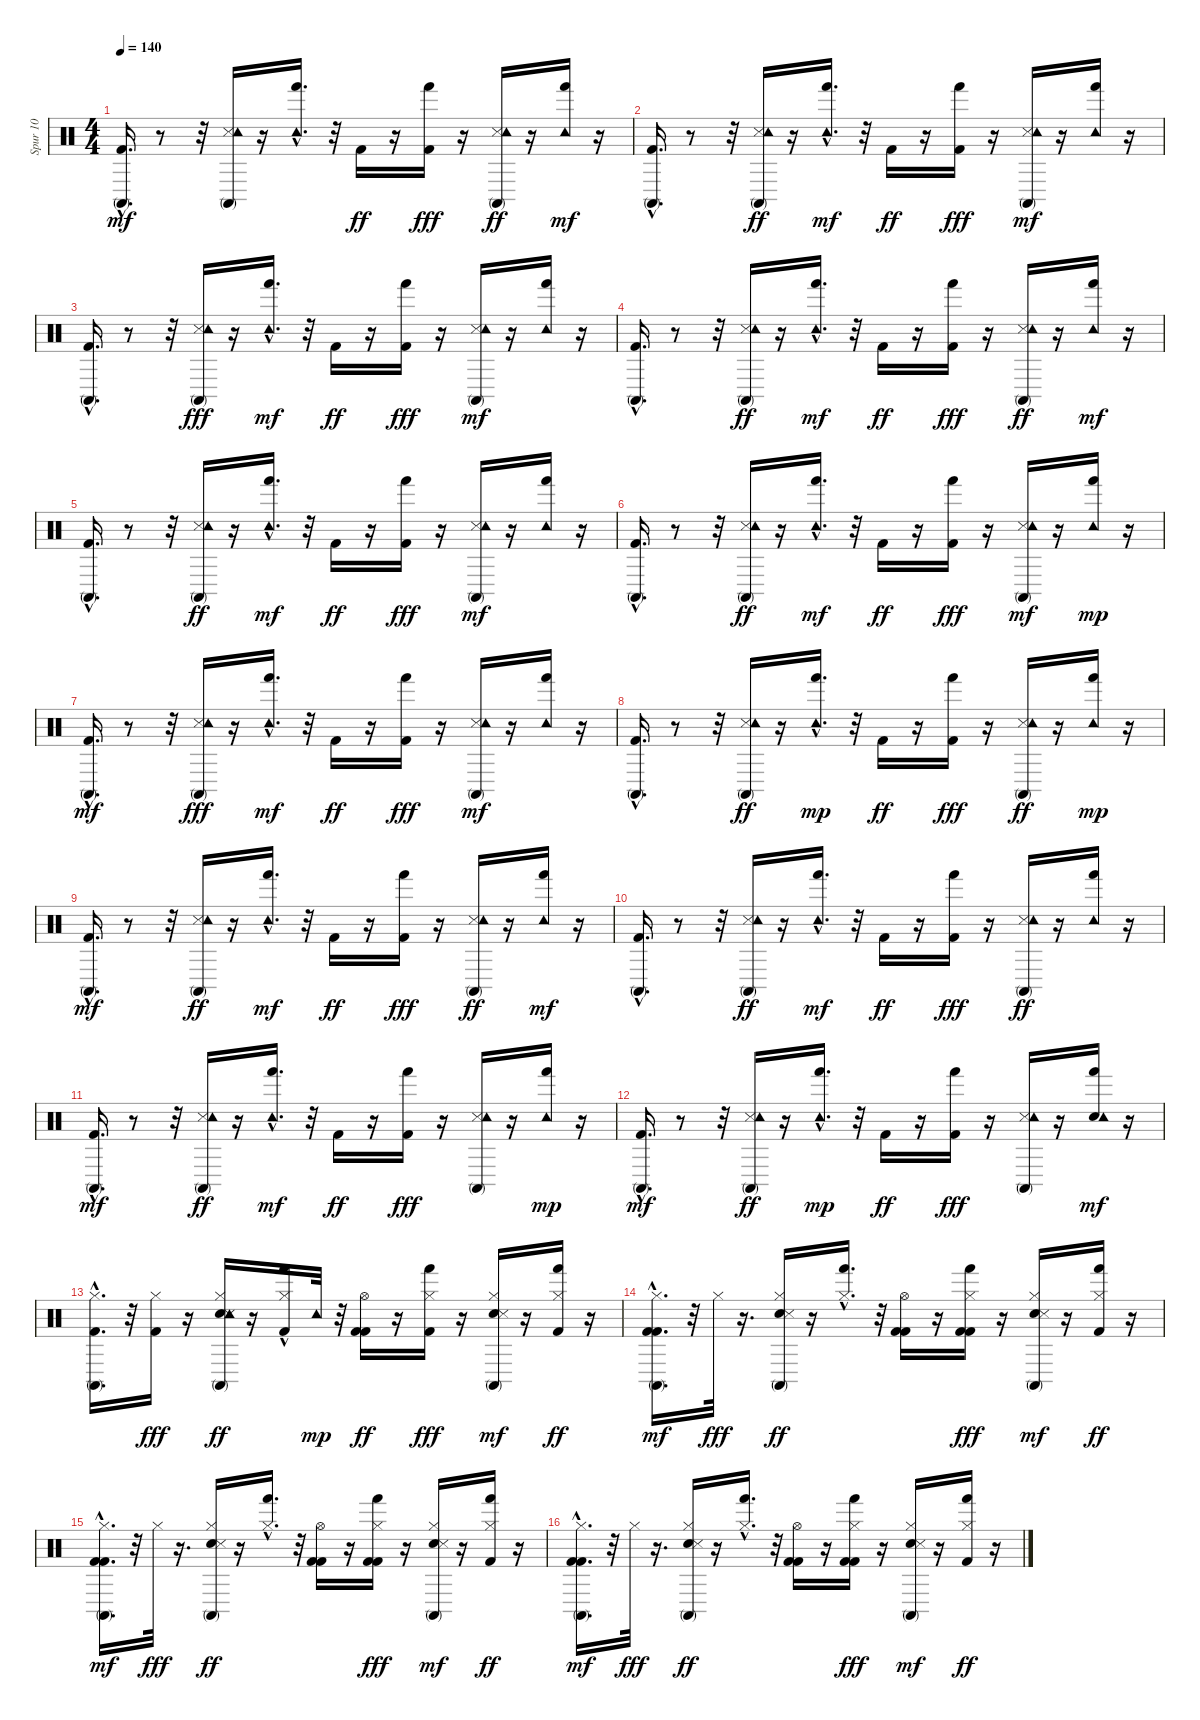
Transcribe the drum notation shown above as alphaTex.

\track ("Spur 10" "Spur 10") {instrument percussion}
\staff {score}
\articulation defaults
\ts (4 4)
\tempo 140
\clef neutral
\ks c
("Kick (hit) 2" "Conga high (mute)"{hac}).16{d dy mf} r.8 r.32 ("Snare (side stick) 3" "Conga high (mute)" "Tambourine (hit)").16 r.16 ("Hand (hit)"{hac} "Tambourine (hit)").16{d} r.32 "Kick (hit) 2".16{dy ff} r.16 ("Kick (hit) 2" "Hand (hit)").16{dy fff} r.16 ("Snare (side stick) 3" "Conga high (mute)" "Tambourine (hit)").16{dy ff} r.16 ("Hand (hit)" "Tambourine (hit)").16{dy mf} r.16 |
("Kick (hit) 2" "Conga high (mute)"{hac}).16{d} r.8 r.32 ("Snare (side stick) 3" "Conga high (mute)" "Tambourine (hit)").16{dy ff} r.16 ("Hand (hit)"{hac} "Tambourine (hit)").16{d dy mf} r.32 "Kick (hit) 2".16{dy ff} r.16 ("Kick (hit) 2" "Hand (hit)").16{dy fff} r.16 ("Snare (side stick) 3" "Conga high (mute)" "Tambourine (hit)").16{dy mf} r.16 ("Hand (hit)" "Tambourine (hit)").16 r.16 |
("Kick (hit) 2" "Conga high (mute)"{hac}).16{d} r.8 r.32 ("Snare (side stick) 3" "Conga high (mute)" "Tambourine (hit)").16{dy fff} r.16 ("Hand (hit)"{hac} "Tambourine (hit)").16{d dy mf} r.32 "Kick (hit) 2".16{dy ff} r.16 ("Kick (hit) 2" "Hand (hit)").16{dy fff} r.16 ("Snare (side stick) 3" "Conga high (mute)" "Tambourine (hit)").16{dy mf} r.16 ("Hand (hit)" "Tambourine (hit)").16 r.16 |
("Kick (hit) 2" "Conga high (mute)"{hac}).16{d} r.8 r.32 ("Snare (side stick) 3" "Conga high (mute)" "Tambourine (hit)").16{dy ff} r.16 ("Hand (hit)"{hac} "Tambourine (hit)").16{d dy mf} r.32 "Kick (hit) 2".16{dy ff} r.16 ("Kick (hit) 2" "Hand (hit)").16{dy fff} r.16 ("Snare (side stick) 3" "Conga high (mute)" "Tambourine (hit)").16{dy ff} r.16 ("Hand (hit)" "Tambourine (hit)").16{dy mf} r.16 |
("Kick (hit) 2" "Conga high (mute)"{hac}).16{d} r.8 r.32 ("Snare (side stick) 3" "Conga high (mute)" "Tambourine (hit)").16{dy ff} r.16 ("Hand (hit)"{hac} "Tambourine (hit)").16{d dy mf} r.32 "Kick (hit) 2".16{dy ff} r.16 ("Kick (hit) 2" "Hand (hit)").16{dy fff} r.16 ("Snare (side stick) 3" "Conga high (mute)" "Tambourine (hit)").16{dy mf} r.16 ("Hand (hit)" "Tambourine (hit)").16 r.16 |
("Kick (hit) 2" "Conga high (mute)"{hac}).16{d} r.8 r.32 ("Snare (side stick) 3" "Conga high (mute)" "Tambourine (hit)").16{dy ff} r.16 ("Hand (hit)"{hac} "Tambourine (hit)").16{d dy mf} r.32 "Kick (hit) 2".16{dy ff} r.16 ("Kick (hit) 2" "Hand (hit)").16{dy fff} r.16 ("Snare (side stick) 3" "Conga high (mute)" "Tambourine (hit)").16{dy mf} r.16 ("Hand (hit)" "Tambourine (hit)").16{dy mp} r.16 |
("Kick (hit) 2" "Conga high (mute)"{hac}).16{d dy mf} r.8 r.32 ("Snare (side stick) 3" "Conga high (mute)" "Tambourine (hit)").16{dy fff} r.16 ("Hand (hit)"{hac} "Tambourine (hit)").16{d dy mf} r.32 "Kick (hit) 2".16{dy ff} r.16 ("Kick (hit) 2" "Hand (hit)").16{dy fff} r.16 ("Snare (side stick) 3" "Conga high (mute)" "Tambourine (hit)").16{dy mf} r.16 ("Hand (hit)" "Tambourine (hit)").16 r.16 |
("Kick (hit) 2" "Conga high (mute)"{hac}).16{d} r.8 r.32 ("Snare (side stick) 3" "Conga high (mute)" "Tambourine (hit)").16{dy ff} r.16 ("Hand (hit)"{hac} "Tambourine (hit)").16{d dy mp} r.32 "Kick (hit) 2".16{dy ff} r.16 ("Kick (hit) 2" "Hand (hit)").16{dy fff} r.16 ("Snare (side stick) 3" "Conga high (mute)" "Tambourine (hit)").16{dy ff} r.16 ("Hand (hit)" "Tambourine (hit)").16{dy mp} r.16 |
("Kick (hit) 2" "Conga high (mute)"{hac}).16{d dy mf} r.8 r.32 ("Snare (side stick) 3" "Conga high (mute)" "Tambourine (hit)").16{dy ff} r.16 ("Hand (hit)"{hac} "Tambourine (hit)").16{d dy mf} r.32 "Kick (hit) 2".16{dy ff} r.16 ("Kick (hit) 2" "Hand (hit)").16{dy fff} r.16 ("Snare (side stick) 3" "Conga high (mute)" "Tambourine (hit)").16{dy ff} r.16 ("Hand (hit)" "Tambourine (hit)").16{dy mf} r.16 |
("Kick (hit) 2" "Conga high (mute)"{hac}).16{d} r.8 r.32 ("Snare (side stick) 3" "Conga high (mute)" "Tambourine (hit)").16{dy ff} r.16 ("Hand (hit)"{hac} "Tambourine (hit)").16{d dy mf} r.32 "Kick (hit) 2".16{dy ff} r.16 ("Kick (hit) 2" "Hand (hit)").16{dy fff} r.16 ("Snare (side stick) 3" "Conga high (mute)" "Tambourine (hit)").16{dy ff} r.16 ("Hand (hit)" "Tambourine (hit)").16 r.16 |
("Kick (hit) 2" "Conga high (mute)"{hac}).16{d dy mf} r.8 r.32 ("Snare (side stick) 3" "Conga high (mute)" "Tambourine (hit)").16{dy ff} r.16 ("Hand (hit)"{hac} "Tambourine (hit)").16{d dy mf} r.32 "Kick (hit) 2".16{dy ff} r.16 ("Kick (hit) 2" "Hand (hit)").16{dy fff} r.16 ("Snare (side stick) 3" "Conga high (mute)" "Tambourine (hit)").16 r.16 ("Hand (hit)" "Tambourine (hit)").16{dy mp} r.16 |
("Kick (hit) 2" "Conga high (mute)"{hac}).16{d dy mf} r.8 r.32 ("Snare (side stick) 3" "Conga high (mute)" "Tambourine (hit)").16{dy ff} r.16 ("Hand (hit)"{hac} "Tambourine (hit)").16{d dy mp} r.32 "Kick (hit) 2".16{dy ff} r.16 ("Kick (hit) 2" "Hand (hit)").16{dy fff} r.16 ("Snare (side stick) 3" "Conga high (mute)" "Tambourine (hit)").16 r.16 ("Hand (hit)" "Electric Snare (hit)" "Tambourine (hit)").16{dy mf} r.16 |
("Hi-Hat (closed)" "Kick (hit) 2" "Conga high (mute)"{hac}).16{d} r.32 ("Kick (hit) 2" "Hi-Hat (closed)").16{dy fff} r.16 ("Electric Snare (hit)" "Hi-Hat (closed)" "Snare (side stick) 3" "Conga high (mute)" "Tambourine (hit)").16{dy ff} r.16 ("Kick (hit) 2" "Hi-Hat (closed)" "Hand (hit)"{hac}).16 "Tambourine (hit)".32{dy mp} r.32 ("Kick (hit) 2" "Hi-Hat (open)" "Kick (hit) 2").16{dy ff} r.16 ("Hi-Hat (closed)" "Kick (hit) 2" "Hand (hit)").16{dy fff} r.16 ("Electric Snare (hit)" "Hi-Hat (closed)" "Snare (side stick) 3" "Conga high (mute)").16{dy mf} r.16 ("Kick (hit) 2" "Hi-Hat (closed)" "Hand (hit)").16{dy ff} r.16 |
("Kick (hit) 2" "Hi-Hat (closed)" "Kick (hit) 2" "Conga high (mute)"{hac}).16{d dy mf} r.32 "Hi-Hat (closed)".32{dy fff} r.16{d} ("Electric Snare (hit)" "Hi-Hat (closed)" "Snare (side stick) 3" "Conga high (mute)").16{dy ff} r.16 ("Hi-Hat (closed)" "Hand (hit)"{hac}).16{d} r.32 ("Kick (hit) 2" "Hi-Hat (open)" "Kick (hit) 2").16 r.16 ("Kick (hit) 2" "Hi-Hat (closed)" "Kick (hit) 2" "Hand (hit)").16{dy fff} r.16 ("Electric Snare (hit)" "Hi-Hat (closed)" "Snare (side stick) 3" "Conga high (mute)").16{dy mf} r.16 ("Kick (hit) 2" "Hi-Hat (closed)" "Hand (hit)").16{dy ff} r.16 |
("Kick (hit) 2" "Hi-Hat (closed)" "Kick (hit) 2" "Conga high (mute)"{hac}).16{d dy mf} r.32 "Hi-Hat (closed)".32{dy fff} r.16{d} ("Electric Snare (hit)" "Hi-Hat (closed)" "Snare (side stick) 3" "Conga high (mute)").16{dy ff} r.16 ("Hi-Hat (closed)" "Hand (hit)"{hac}).16{d} r.32 ("Kick (hit) 2" "Hi-Hat (open)" "Kick (hit) 2").16 r.16 ("Kick (hit) 2" "Hi-Hat (closed)" "Kick (hit) 2" "Hand (hit)").16{dy fff} r.16 ("Electric Snare (hit)" "Hi-Hat (closed)" "Snare (side stick) 3" "Conga high (mute)").16{dy mf} r.16 ("Kick (hit) 2" "Hi-Hat (closed)" "Hand (hit)").16{dy ff} r.16 |
("Hi-Hat (closed)" "Kick (hit) 2" "Kick (hit) 2" "Conga high (mute)"{hac}).16{d dy mf} r.32 "Hi-Hat (closed)".32{dy fff} r.16{d} ("Hi-Hat (closed)" "Electric Snare (hit)" "Snare (side stick) 3" "Conga high (mute)").16{dy ff} r.16 ("Hi-Hat (closed)" "Hand (hit)"{hac}).16{d} r.32 ("Hi-Hat (open)" "Kick (hit) 2" "Kick (hit) 2").16 r.16 ("Hi-Hat (closed)" "Kick (hit) 2" "Kick (hit) 2" "Hand (hit)").16{dy fff} r.16 ("Hi-Hat (closed)" "Electric Snare (hit)" "Snare (side stick) 3" "Conga high (mute)").16{dy mf} r.16 ("Hi-Hat (closed)" "Kick (hit) 2" "Hand (hit)").16{dy ff} r.16
